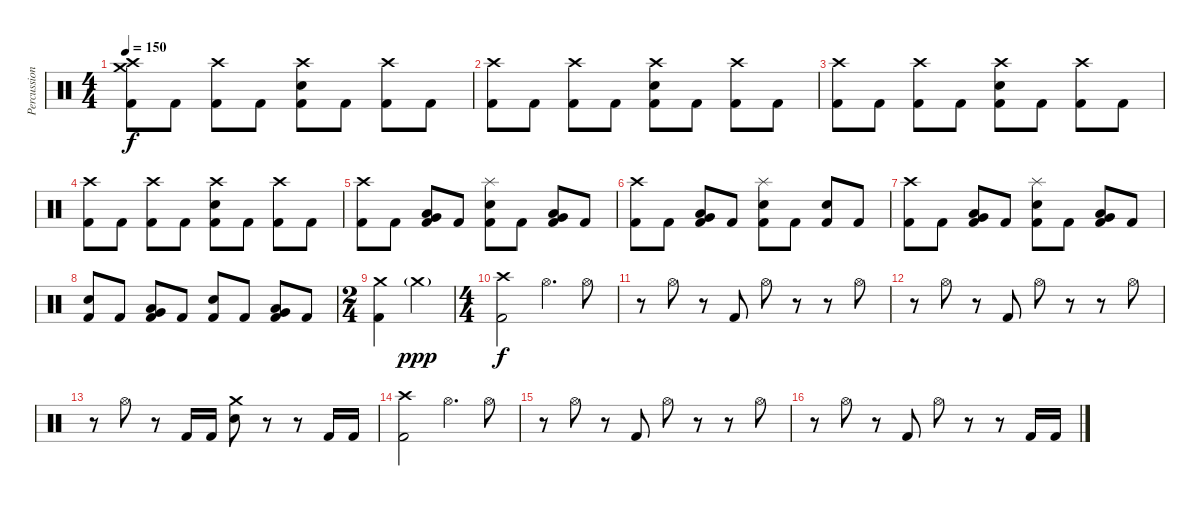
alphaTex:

\track ("Percussion" "Percussion") {instrument percussion}
\staff {score}
\articulation defaults
\ts (4 4)
\tempo 150
\clef neutral
\ks c
("Crash high (hit)" "Crash medium (hit)" "Kick (hit) 2").8{dy f} "Kick (hit) 2".8 ("Crash high (hit)" "Kick (hit) 2").8 "Kick (hit) 2".8 ("Crash high (hit)" "Snare (hit) 2" "Kick (hit) 2").8 "Kick (hit) 2".8 ("Crash high (hit)" "Kick (hit) 2").8 "Kick (hit) 2".8 |
("Crash high (hit)" "Kick (hit) 2").8 "Kick (hit) 2".8 ("Crash high (hit)" "Kick (hit) 2").8 "Kick (hit) 2".8 ("Crash high (hit)" "Snare (hit) 2" "Kick (hit) 2").8 "Kick (hit) 2".8 ("Crash high (hit)" "Kick (hit) 2").8 "Kick (hit) 2".8 |
("Crash high (hit)" "Kick (hit) 2").8 "Kick (hit) 2".8 ("Crash high (hit)" "Kick (hit) 2").8 "Kick (hit) 2".8 ("Crash high (hit)" "Snare (hit) 2" "Kick (hit) 2").8 "Kick (hit) 2".8 ("Crash high (hit)" "Kick (hit) 2").8 "Kick (hit) 2".8 |
("Crash high (hit)" "Kick (hit) 2").8 "Kick (hit) 2".8 ("Crash high (hit)" "Kick (hit) 2").8 "Kick (hit) 2".8 ("Crash high (hit)" "Snare (hit) 2" "Kick (hit) 2").8 "Kick (hit) 2".8 ("Crash high (hit)" "Kick (hit) 2").8 "Kick (hit) 2".8 |
("Crash high (hit)" "Kick (hit) 2").8 "Kick (hit) 2".8 ("Low Tom (hit)" "Very Low Tom (hit)" "Kick (hit) 2").8 "Kick (hit) 2".8 ("Splash (hit)" "Snare (hit) 2" "Kick (hit) 2").8 "Kick (hit) 2".8 ("Low Tom (hit)" "Very Low Tom (hit)" "Kick (hit) 2").8 "Kick (hit) 2".8 |
("Crash high (hit)" "Kick (hit) 2").8 "Kick (hit) 2".8 ("Low Tom (hit)" "Very Low Tom (hit)" "Kick (hit) 2").8 "Kick (hit) 2".8 ("Splash (hit)" "Snare (hit) 2" "Kick (hit) 2").8 "Kick (hit) 2".8 ("Snare (hit) 2" "Kick (hit) 2").8 "Kick (hit) 2".8 |
("Crash high (hit)" "Kick (hit) 2").8 "Kick (hit) 2".8 ("Low Tom (hit)" "Very Low Tom (hit)" "Kick (hit) 2").8 "Kick (hit) 2".8 ("Splash (hit)" "Snare (hit) 2" "Kick (hit) 2").8 "Kick (hit) 2".8 ("Low Tom (hit)" "Very Low Tom (hit)" "Kick (hit) 2").8 "Kick (hit) 2".8 |
("Snare (hit) 2" "Kick (hit) 2").8 "Kick (hit) 2".8 ("Low Tom (hit)" "Very Low Tom (hit)" "Kick (hit) 2").8 "Kick (hit) 2".8 ("Snare (hit) 2" "Kick (hit) 2").8 "Kick (hit) 2".8 ("Low Tom (hit)" "Very Low Tom (hit)" "Kick (hit) 2").8 "Kick (hit) 2".8 |
\ts (2 4)
("Crash medium (hit)" "Kick (hit) 2").4 "Crash medium (hit)"{g}.4{dy ppp} |
\ts (4 4)
("Crash high (hit)" "Kick (hit) 2").2{dy f} "Hi-Hat (open)".4{d} "Hi-Hat (open)".8 |
r.8 "Hi-Hat (open)".8 r.8 "Kick (hit) 2".8 "Hi-Hat (open)".8 r.8 r.8 "Hi-Hat (open)".8 |
r.8 "Hi-Hat (open)".8 r.8 "Kick (hit) 2".8 "Hi-Hat (open)".8 r.8 r.8 "Hi-Hat (open)".8 |
r.8 "Hi-Hat (open)".8 r.8 "Kick (hit) 2".16 "Kick (hit) 2".16 ("Crash medium (hit)" "Snare (hit) 2").8 r.8 r.8 "Kick (hit) 2".16 "Kick (hit) 2".16 |
("Crash high (hit)" "Kick (hit) 2").2 "Hi-Hat (open)".4{d} "Hi-Hat (open)".8 |
r.8 "Hi-Hat (open)".8 r.8 "Kick (hit) 2".8 "Hi-Hat (open)".8 r.8 r.8 "Hi-Hat (open)".8 |
r.8 "Hi-Hat (open)".8 r.8 "Kick (hit) 2".8 "Hi-Hat (open)".8 r.8 r.8 "Kick (hit) 2".16 "Kick (hit) 2".16
